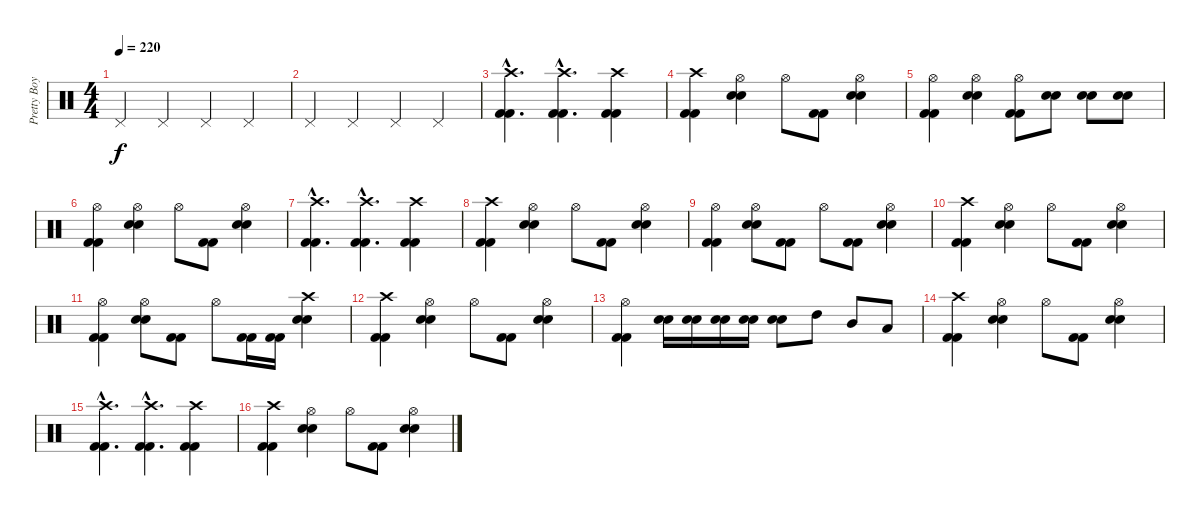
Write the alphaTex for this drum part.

\track ("Pretty Boy Geoff (Lars Drums)" "Pretty Boy") {instrument percussion}
\staff {score}
\articulation defaults
\ts (4 4)
\tempo 220
\clef neutral
\ks c "Pedal Hi-Hat (hit)".4{dy f} "Pedal Hi-Hat (hit)".4 "Pedal Hi-Hat (hit)".4 "Pedal Hi-Hat (hit)".4
|
"Pedal Hi-Hat (hit)".4 "Pedal Hi-Hat (hit)".4 "Pedal Hi-Hat (hit)".4 "Pedal Hi-Hat (hit)".4 |
("Crash high (hit)"{hac} "Kick (hit) 2"{hac} "Kick (hit) 2"{hac}).4{d} ("Crash high (hit)"{hac} "Kick (hit) 2"{hac} "Kick (hit) 2"{hac}).4{d} ("Crash high (hit)" "Kick (hit) 2" "Kick (hit) 2").4 |
("Crash high (hit)" "Kick (hit) 2" "Kick (hit) 2").4 ("Hi-Hat (open)" "Electric Snare (hit)" "Electric Snare (hit)").4 "Hi-Hat (open)".8 ("Kick (hit) 2" "Kick (hit) 2").8 ("Hi-Hat (open)" "Electric Snare (hit)" "Electric Snare (hit)").4 |
("Hi-Hat (open)" "Kick (hit) 2" "Kick (hit) 2").4 ("Hi-Hat (open)" "Electric Snare (hit)" "Electric Snare (hit)").4 ("Hi-Hat (open)" "Kick (hit) 2" "Kick (hit) 2").8 ("Electric Snare (hit)" "Electric Snare (hit)").8 ("Electric Snare (hit)" "Electric Snare (hit)").8 ("Electric Snare (hit)" "Electric Snare (hit)").8 |
("Hi-Hat (open)" "Kick (hit) 2" "Kick (hit) 2").4 ("Hi-Hat (open)" "Electric Snare (hit)" "Electric Snare (hit)").4 "Hi-Hat (open)".8 ("Kick (hit) 2" "Kick (hit) 2").8 ("Hi-Hat (open)" "Electric Snare (hit)" "Electric Snare (hit)").4 |
("Crash high (hit)"{hac} "Kick (hit) 2"{hac} "Kick (hit) 2"{hac}).4{d} ("Crash high (hit)"{hac} "Kick (hit) 2"{hac} "Kick (hit) 2"{hac}).4{d} ("Crash high (hit)" "Kick (hit) 2" "Kick (hit) 2").4 |
("Crash high (hit)" "Kick (hit) 2" "Kick (hit) 2").4 ("Hi-Hat (open)" "Electric Snare (hit)" "Electric Snare (hit)").4 "Hi-Hat (open)".8 ("Kick (hit) 2" "Kick (hit) 2").8 ("Hi-Hat (open)" "Electric Snare (hit)" "Electric Snare (hit)").4 |
("Hi-Hat (open)" "Kick (hit) 2" "Kick (hit) 2").4 ("Hi-Hat (open)" "Electric Snare (hit)" "Electric Snare (hit)").8 ("Kick (hit) 2" "Kick (hit) 2").8 "Hi-Hat (open)".8 ("Kick (hit) 2" "Kick (hit) 2").8 ("Hi-Hat (open)" "Electric Snare (hit)" "Electric Snare (hit)").4 |
("Crash high (hit)" "Kick (hit) 2" "Kick (hit) 2").4 ("Hi-Hat (open)" "Electric Snare (hit)" "Electric Snare (hit)").4 "Hi-Hat (open)".8 ("Kick (hit) 2" "Kick (hit) 2").8 ("Hi-Hat (open)" "Electric Snare (hit)" "Electric Snare (hit)").4 |
("Hi-Hat (open)" "Kick (hit) 2" "Kick (hit) 2").4 ("Hi-Hat (open)" "Electric Snare (hit)" "Electric Snare (hit)").8 ("Kick (hit) 2" "Kick (hit) 2").8 "Hi-Hat (open)".8 ("Kick (hit) 2" "Kick (hit) 2").16 ("Kick (hit) 2" "Kick (hit) 2").16 ("Crash high (hit)" "Electric Snare (hit)" "Electric Snare (hit)").4 |
("Crash high (hit)" "Kick (hit) 2" "Kick (hit) 2").4 ("Hi-Hat (open)" "Electric Snare (hit)" "Electric Snare (hit)").4 "Hi-Hat (open)".8 ("Kick (hit) 2" "Kick (hit) 2").8 ("Hi-Hat (open)" "Electric Snare (hit)" "Electric Snare (hit)").4 |
("Hi-Hat (open)" "Kick (hit) 2" "Kick (hit) 2").4 ("Electric Snare (hit)" "Electric Snare (hit)").16 ("Electric Snare (hit)" "Electric Snare (hit)").16 ("Electric Snare (hit)" "Electric Snare (hit)").16 ("Electric Snare (hit)" "Electric Snare (hit)").16 ("Electric Snare (hit)" "Electric Snare (hit)").8 "High Tom (hit)".8 "Mid Tom (hit)".8 "Low Tom (hit)".8 |
("Crash high (hit)" "Kick (hit) 2" "Kick (hit) 2").4 ("Hi-Hat (open)" "Electric Snare (hit)" "Electric Snare (hit)").4 "Hi-Hat (open)".8 ("Kick (hit) 2" "Kick (hit) 2").8 ("Hi-Hat (open)" "Electric Snare (hit)" "Electric Snare (hit)").4 |
("Crash high (hit)"{hac} "Kick (hit) 2"{hac} "Kick (hit) 2"{hac}).4{d} ("Crash high (hit)"{hac} "Kick (hit) 2"{hac} "Kick (hit) 2"{hac}).4{d} ("Crash high (hit)" "Kick (hit) 2" "Kick (hit) 2").4 |
("Crash high (hit)" "Kick (hit) 2" "Kick (hit) 2").4 ("Hi-Hat (open)" "Electric Snare (hit)" "Electric Snare (hit)").4 "Hi-Hat (open)".8 ("Kick (hit) 2" "Kick (hit) 2").8 ("Hi-Hat (open)" "Electric Snare (hit)" "Electric Snare (hit)").4
